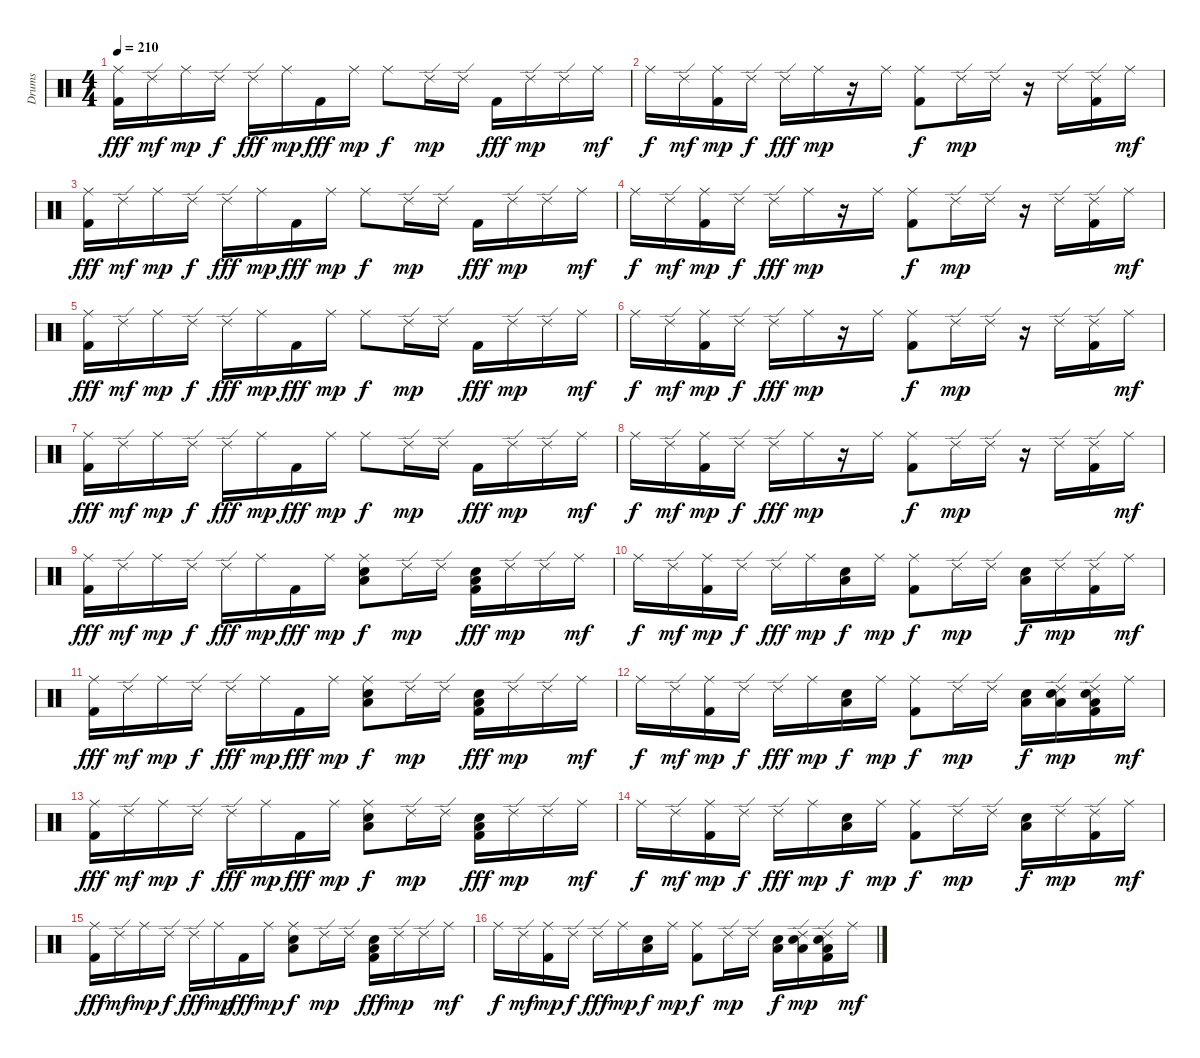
\track ("Drums" "Drums") {instrument percussion}
\staff {score}
\articulation defaults
\ts (4 4)
\tempo 210
\clef neutral
\ks c
("Ride (middle)" "Kick (hit) 2").16{dy fff} "Ride (edge) 2".16{dy mf} "Ride (middle)".16{dy mp} "Ride (edge) 2".16{dy f} "Ride (edge) 2".16{dy fff} "Ride (middle)".16{dy mp} "Kick (hit) 2".16{dy fff} "Ride (middle)".16{dy mp} "Ride (middle)".8{dy f} "Ride (edge) 2".16{dy mp} "Ride (edge) 2".16 "Kick (hit) 2".16{dy fff} "Ride (edge) 2".16{dy mp} "Ride (edge) 2".16 "Ride (middle)".16{dy mf} |
"Ride (middle)".16{dy f} "Ride (edge) 2".16{dy mf} ("Ride (middle)" "Kick (hit) 2").16{dy mp} "Ride (edge) 2".16{dy f} "Ride (edge) 2".16{dy fff} "Ride (middle)".16{dy mp} r.16 "Ride (middle)".16 ("Ride (middle)" "Kick (hit) 2").8{dy f} "Ride (edge) 2".16{dy mp} "Ride (edge) 2".16 r.16 "Ride (edge) 2".16 ("Ride (edge) 2" "Kick (hit) 2").16 "Ride (middle)".16{dy mf} |
("Ride (middle)" "Kick (hit) 2").16{dy fff} "Ride (edge) 2".16{dy mf} "Ride (middle)".16{dy mp} "Ride (edge) 2".16{dy f} "Ride (edge) 2".16{dy fff} "Ride (middle)".16{dy mp} "Kick (hit) 2".16{dy fff} "Ride (middle)".16{dy mp} "Ride (middle)".8{dy f} "Ride (edge) 2".16{dy mp} "Ride (edge) 2".16 "Kick (hit) 2".16{dy fff} "Ride (edge) 2".16{dy mp} "Ride (edge) 2".16 "Ride (middle)".16{dy mf} |
"Ride (middle)".16{dy f} "Ride (edge) 2".16{dy mf} ("Ride (middle)" "Kick (hit) 2").16{dy mp} "Ride (edge) 2".16{dy f} "Ride (edge) 2".16{dy fff} "Ride (middle)".16{dy mp} r.16 "Ride (middle)".16 ("Ride (middle)" "Kick (hit) 2").8{dy f} "Ride (edge) 2".16{dy mp} "Ride (edge) 2".16 r.16 "Ride (edge) 2".16 ("Ride (edge) 2" "Kick (hit) 2").16 "Ride (middle)".16{dy mf} |
("Ride (middle)" "Kick (hit) 2").16{dy fff} "Ride (edge) 2".16{dy mf} "Ride (middle)".16{dy mp} "Ride (edge) 2".16{dy f} "Ride (edge) 2".16{dy fff} "Ride (middle)".16{dy mp} "Kick (hit) 2".16{dy fff} "Ride (middle)".16{dy mp} "Ride (middle)".8{dy f} "Ride (edge) 2".16{dy mp} "Ride (edge) 2".16 "Kick (hit) 2".16{dy fff} "Ride (edge) 2".16{dy mp} "Ride (edge) 2".16 "Ride (middle)".16{dy mf} |
"Ride (middle)".16{dy f} "Ride (edge) 2".16{dy mf} ("Ride (middle)" "Kick (hit) 2").16{dy mp} "Ride (edge) 2".16{dy f} "Ride (edge) 2".16{dy fff} "Ride (middle)".16{dy mp} r.16 "Ride (middle)".16 ("Ride (middle)" "Kick (hit) 2").8{dy f} "Ride (edge) 2".16{dy mp} "Ride (edge) 2".16 r.16 "Ride (edge) 2".16 ("Ride (edge) 2" "Kick (hit) 2").16 "Ride (middle)".16{dy mf} |
("Ride (middle)" "Kick (hit) 2").16{dy fff} "Ride (edge) 2".16{dy mf} "Ride (middle)".16{dy mp} "Ride (edge) 2".16{dy f} "Ride (edge) 2".16{dy fff} "Ride (middle)".16{dy mp} "Kick (hit) 2".16{dy fff} "Ride (middle)".16{dy mp} "Ride (middle)".8{dy f} "Ride (edge) 2".16{dy mp} "Ride (edge) 2".16 "Kick (hit) 2".16{dy fff} "Ride (edge) 2".16{dy mp} "Ride (edge) 2".16 "Ride (middle)".16{dy mf} |
"Ride (middle)".16{dy f} "Ride (edge) 2".16{dy mf} ("Ride (middle)" "Kick (hit) 2").16{dy mp} "Ride (edge) 2".16{dy f} "Ride (edge) 2".16{dy fff} "Ride (middle)".16{dy mp} r.16 "Ride (middle)".16 ("Ride (middle)" "Kick (hit) 2").8{dy f} "Ride (edge) 2".16{dy mp} "Ride (edge) 2".16 r.16 "Ride (edge) 2".16 ("Ride (edge) 2" "Kick (hit) 2").16 "Ride (middle)".16{dy mf} |
("Ride (middle)" "Kick (hit) 2").16{dy fff} "Ride (edge) 2".16{dy mf} "Ride (middle)".16{dy mp} "Ride (edge) 2".16{dy f} "Ride (edge) 2".16{dy fff} "Ride (middle)".16{dy mp} "Kick (hit) 2".16{dy fff} "Ride (middle)".16{dy mp} ("Ride (middle)" "Low Tom (hit)" "Electric Snare (hit)").8{dy f} "Ride (edge) 2".16{dy mp} "Ride (edge) 2".16 ("Low Tom (hit)" "Electric Snare (hit)" "Kick (hit) 2").16{dy fff} "Ride (edge) 2".16{dy mp} "Ride (edge) 2".16 "Ride (middle)".16{dy mf} |
"Ride (middle)".16{dy f} "Ride (edge) 2".16{dy mf} ("Ride (middle)" "Kick (hit) 2").16{dy mp} "Ride (edge) 2".16{dy f} "Ride (edge) 2".16{dy fff} "Ride (middle)".16{dy mp} ("Low Tom (hit)" "Electric Snare (hit)").16{dy f} "Ride (middle)".16{dy mp} ("Ride (middle)" "Kick (hit) 2").8{dy f} "Ride (edge) 2".16{dy mp} "Ride (edge) 2".16 ("Low Tom (hit)" "Electric Snare (hit)").16{dy f} "Ride (edge) 2".16{dy mp} ("Ride (edge) 2" "Kick (hit) 2").16 "Ride (middle)".16{dy mf} |
("Ride (middle)" "Kick (hit) 2").16{dy fff} "Ride (edge) 2".16{dy mf} "Ride (middle)".16{dy mp} "Ride (edge) 2".16{dy f} "Ride (edge) 2".16{dy fff} "Ride (middle)".16{dy mp} "Kick (hit) 2".16{dy fff} "Ride (middle)".16{dy mp} ("Ride (middle)" "Low Tom (hit)" "Electric Snare (hit)").8{dy f} "Ride (edge) 2".16{dy mp} "Ride (edge) 2".16 ("Low Tom (hit)" "Electric Snare (hit)" "Kick (hit) 2").16{dy fff} "Ride (edge) 2".16{dy mp} "Ride (edge) 2".16 "Ride (middle)".16{dy mf} |
"Ride (middle)".16{dy f} "Ride (edge) 2".16{dy mf} ("Ride (middle)" "Kick (hit) 2").16{dy mp} "Ride (edge) 2".16{dy f} "Ride (edge) 2".16{dy fff} "Ride (middle)".16{dy mp} ("Low Tom (hit)" "Electric Snare (hit)").16{dy f} "Ride (middle)".16{dy mp} ("Ride (middle)" "Kick (hit) 2").8{dy f} "Ride (edge) 2".16{dy mp} "Ride (edge) 2".16 ("Low Tom (hit)" "Electric Snare (hit)").16{dy f} ("Ride (edge) 2" "Low Tom (hit)" "Electric Snare (hit)").16{dy mp} ("Ride (edge) 2" "Low Tom (hit)" "Electric Snare (hit)" "Kick (hit) 2").16 "Ride (middle)".16{dy mf} |
("Ride (middle)" "Kick (hit) 2").16{dy fff} "Ride (edge) 2".16{dy mf} "Ride (middle)".16{dy mp} "Ride (edge) 2".16{dy f} "Ride (edge) 2".16{dy fff} "Ride (middle)".16{dy mp} "Kick (hit) 2".16{dy fff} "Ride (middle)".16{dy mp} ("Ride (middle)" "Low Tom (hit)" "Electric Snare (hit)").8{dy f} "Ride (edge) 2".16{dy mp} "Ride (edge) 2".16 ("Low Tom (hit)" "Electric Snare (hit)" "Kick (hit) 2").16{dy fff} "Ride (edge) 2".16{dy mp} "Ride (edge) 2".16 "Ride (middle)".16{dy mf} |
"Ride (middle)".16{dy f} "Ride (edge) 2".16{dy mf} ("Ride (middle)" "Kick (hit) 2").16{dy mp} "Ride (edge) 2".16{dy f} "Ride (edge) 2".16{dy fff} "Ride (middle)".16{dy mp} ("Low Tom (hit)" "Electric Snare (hit)").16{dy f} "Ride (middle)".16{dy mp} ("Ride (middle)" "Kick (hit) 2").8{dy f} "Ride (edge) 2".16{dy mp} "Ride (edge) 2".16 ("Low Tom (hit)" "Electric Snare (hit)").16{dy f} "Ride (edge) 2".16{dy mp} ("Ride (edge) 2" "Kick (hit) 2").16 "Ride (middle)".16{dy mf} |
("Ride (middle)" "Kick (hit) 2").16{dy fff} "Ride (edge) 2".16{dy mf} "Ride (middle)".16{dy mp} "Ride (edge) 2".16{dy f} "Ride (edge) 2".16{dy fff} "Ride (middle)".16{dy mp} "Kick (hit) 2".16{dy fff} "Ride (middle)".16{dy mp} ("Ride (middle)" "Low Tom (hit)" "Electric Snare (hit)").8{dy f} "Ride (edge) 2".16{dy mp} "Ride (edge) 2".16 ("Low Tom (hit)" "Electric Snare (hit)" "Kick (hit) 2").16{dy fff} "Ride (edge) 2".16{dy mp} "Ride (edge) 2".16 "Ride (middle)".16{dy mf} |
"Ride (middle)".16{dy f} "Ride (edge) 2".16{dy mf} ("Ride (middle)" "Kick (hit) 2").16{dy mp} "Ride (edge) 2".16{dy f} "Ride (edge) 2".16{dy fff} "Ride (middle)".16{dy mp} ("Low Tom (hit)" "Electric Snare (hit)").16{dy f} "Ride (middle)".16{dy mp} ("Ride (middle)" "Kick (hit) 2").8{dy f} "Ride (edge) 2".16{dy mp} "Ride (edge) 2".16 ("Low Tom (hit)" "Electric Snare (hit)").16{dy f} ("Ride (edge) 2" "Low Tom (hit)" "Electric Snare (hit)").16{dy mp} ("Ride (edge) 2" "Low Tom (hit)" "Electric Snare (hit)" "Kick (hit) 2").16 "Ride (middle)".16{dy mf}
